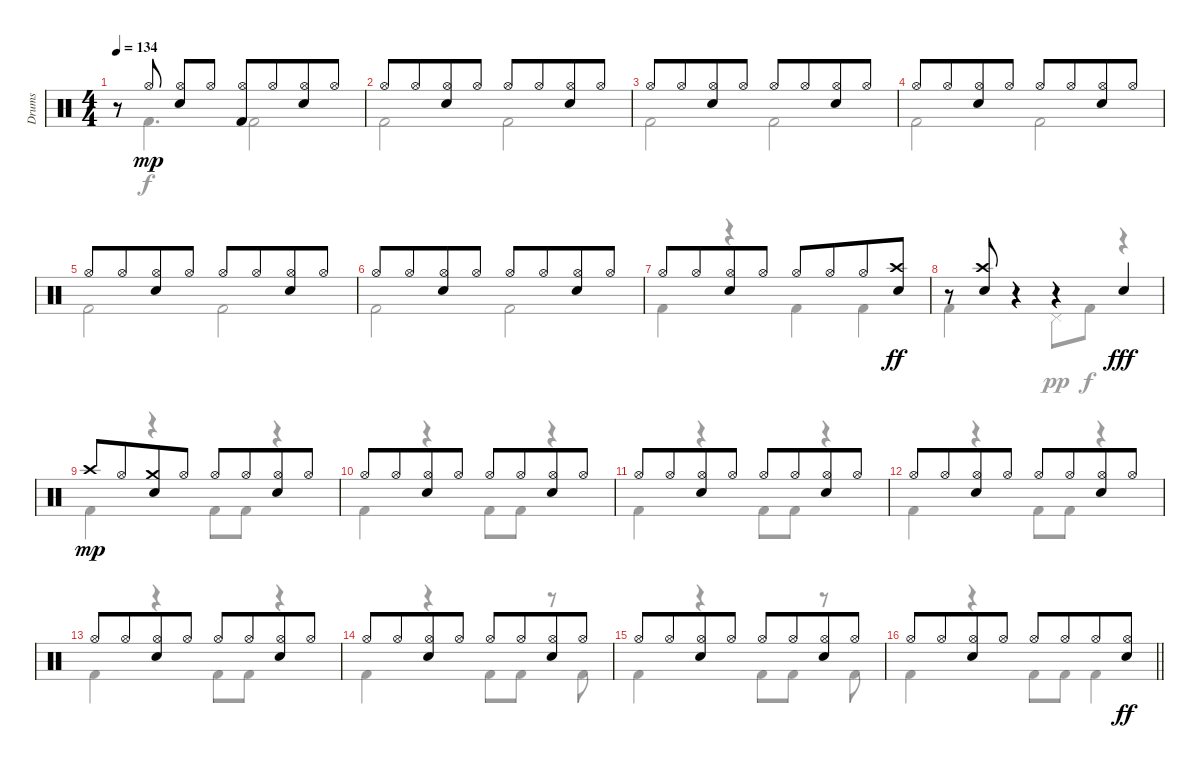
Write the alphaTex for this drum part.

\track ("Drums" "Drums") {instrument percussion}
\staff {score}
\articulation defaults
\voice
\ts (4 4)
\tempo 134
\clef neutral
\ks c
r.8{dy f} "Hi-Hat (open)".8{dy mp} ("Hi-Hat (open)" "Electric Snare (hit)").8 "Hi-Hat (open)".8 ("Hi-Hat (open)" "Kick (hit) 2").8 "Hi-Hat (open)".8{beam merge} ("Hi-Hat (open)" "Electric Snare (hit)").8 "Hi-Hat (open)".8 |
"Hi-Hat (open)".8 "Hi-Hat (open)".8{beam merge} ("Hi-Hat (open)" "Electric Snare (hit)").8 "Hi-Hat (open)".8 "Hi-Hat (open)".8 "Hi-Hat (open)".8{beam merge} ("Hi-Hat (open)" "Electric Snare (hit)").8 "Hi-Hat (open)".8 |
"Hi-Hat (open)".8 "Hi-Hat (open)".8{beam merge} ("Hi-Hat (open)" "Electric Snare (hit)").8 "Hi-Hat (open)".8 "Hi-Hat (open)".8 "Hi-Hat (open)".8{beam merge} ("Hi-Hat (open)" "Electric Snare (hit)").8 "Hi-Hat (open)".8 |
"Hi-Hat (open)".8 "Hi-Hat (open)".8{beam merge} ("Hi-Hat (open)" "Electric Snare (hit)").8 "Hi-Hat (open)".8 "Hi-Hat (open)".8 "Hi-Hat (open)".8{beam merge} ("Hi-Hat (open)" "Electric Snare (hit)").8 "Hi-Hat (open)".8 |
"Hi-Hat (open)".8 "Hi-Hat (open)".8{beam merge} ("Hi-Hat (open)" "Electric Snare (hit)").8 "Hi-Hat (open)".8 "Hi-Hat (open)".8 "Hi-Hat (open)".8{beam merge} ("Hi-Hat (open)" "Electric Snare (hit)").8 "Hi-Hat (open)".8 |
"Hi-Hat (open)".8 "Hi-Hat (open)".8{beam merge} ("Hi-Hat (open)" "Electric Snare (hit)").8 "Hi-Hat (open)".8 "Hi-Hat (open)".8 "Hi-Hat (open)".8{beam merge} ("Hi-Hat (open)" "Electric Snare (hit)").8 "Hi-Hat (open)".8 |
"Hi-Hat (open)".8 "Hi-Hat (open)".8{beam merge} ("Hi-Hat (open)" "Electric Snare (hit)").8 "Hi-Hat (open)".8 "Hi-Hat (open)".8 "Hi-Hat (open)".8{beam merge} "Hi-Hat (open)".8 ("Crash high (hit)" "Electric Snare (hit)").8{dy ff} |
r.8 ("Electric Snare (hit)" "Crash high (hit)").8 r.4 r.4 "Electric Snare (hit)".4{dy fff} |
"Crash high (hit)".8{dy mp} "Hi-Hat (open)".8{beam merge} ("Crash medium (hit)" "Electric Snare (hit)").8 "Hi-Hat (open)".8 "Hi-Hat (open)".8 "Hi-Hat (open)".8{beam merge} ("Hi-Hat (open)" "Electric Snare (hit)").8 "Hi-Hat (open)".8 |
"Hi-Hat (open)".8 "Hi-Hat (open)".8{beam merge} ("Hi-Hat (open)" "Electric Snare (hit)").8 "Hi-Hat (open)".8 "Hi-Hat (open)".8 "Hi-Hat (open)".8{beam merge} ("Hi-Hat (open)" "Electric Snare (hit)").8 "Hi-Hat (open)".8 |
"Hi-Hat (open)".8 "Hi-Hat (open)".8{beam merge} ("Hi-Hat (open)" "Electric Snare (hit)").8 "Hi-Hat (open)".8 "Hi-Hat (open)".8 "Hi-Hat (open)".8{beam merge} ("Hi-Hat (open)" "Electric Snare (hit)").8 "Hi-Hat (open)".8 |
"Hi-Hat (open)".8 "Hi-Hat (open)".8{beam merge} ("Hi-Hat (open)" "Electric Snare (hit)").8 "Hi-Hat (open)".8 "Hi-Hat (open)".8 "Hi-Hat (open)".8{beam merge} ("Hi-Hat (open)" "Electric Snare (hit)").8 "Hi-Hat (open)".8 |
"Hi-Hat (open)".8 "Hi-Hat (open)".8{beam merge} ("Hi-Hat (open)" "Electric Snare (hit)").8 "Hi-Hat (open)".8 "Hi-Hat (open)".8 "Hi-Hat (open)".8{beam merge} ("Hi-Hat (open)" "Electric Snare (hit)").8 "Hi-Hat (open)".8 |
"Hi-Hat (open)".8 "Hi-Hat (open)".8{beam merge} ("Hi-Hat (open)" "Electric Snare (hit)").8 "Hi-Hat (open)".8 "Hi-Hat (open)".8 "Hi-Hat (open)".8{beam merge} ("Hi-Hat (open)" "Electric Snare (hit)").8 "Hi-Hat (open)".8 |
"Hi-Hat (open)".8 "Hi-Hat (open)".8{beam merge} ("Hi-Hat (open)" "Electric Snare (hit)").8 "Hi-Hat (open)".8 "Hi-Hat (open)".8 "Hi-Hat (open)".8{beam merge} ("Hi-Hat (open)" "Electric Snare (hit)").8 "Hi-Hat (open)".8 |
\barLineRight lightlight "Hi-Hat (open)".8 "Hi-Hat (open)".8{beam merge}
("Hi-Hat (open)" "Electric Snare (hit)").8 "Hi-Hat (open)".8 "Hi-Hat (open)".8 "Hi-Hat (open)".8{beam merge} "Hi-Hat (open)".8 ("Hi-Hat (open)" "Electric Snare (hit)").8{dy ff}
\voice
\clef neutral
\ottava regular
\simile none
\ks c
r.8{dy f} "Kick (hit) 2".4{d} "Kick (hit) 2".2 |
"Kick (hit) 2".2 "Kick (hit) 2".2 |
"Kick (hit) 2".2 "Kick (hit) 2".2 |
"Kick (hit) 2".2 "Kick (hit) 2".2 |
"Kick (hit) 2".2 "Kick (hit) 2".2 |
"Kick (hit) 2".2 "Kick (hit) 2".2 |
"Kick (hit) 2".4 r.4 "Kick (hit) 2".4 "Kick (hit) 2".4 |
"Kick (hit) 2".4 r.4 "Pedal Hi-Hat (hit)".8{dy pp} "Kick (hit) 2".8{dy f} r.4 |
"Kick (hit) 2".4 r.4 "Kick (hit) 2".8 "Kick (hit) 2".8 r.4 |
"Kick (hit) 2".4 r.4 "Kick (hit) 2".8 "Kick (hit) 2".8 r.4 |
"Kick (hit) 2".4 r.4 "Kick (hit) 2".8 "Kick (hit) 2".8 r.4 |
"Kick (hit) 2".4 r.4 "Kick (hit) 2".8 "Kick (hit) 2".8 r.4 |
"Kick (hit) 2".4 r.4 "Kick (hit) 2".8 "Kick (hit) 2".8 r.4 |
"Kick (hit) 2".4 r.4 "Kick (hit) 2".8 "Kick (hit) 2".8 r.8 "Kick (hit) 2".8 |
"Kick (hit) 2".4 r.4 "Kick (hit) 2".8 "Kick (hit) 2".8 r.8 "Kick (hit) 2".8 |
\barLineRight lightlight "Kick (hit) 2".4
r.4 "Kick (hit) 2".8 "Kick (hit) 2".8 "Kick (hit) 2".4
